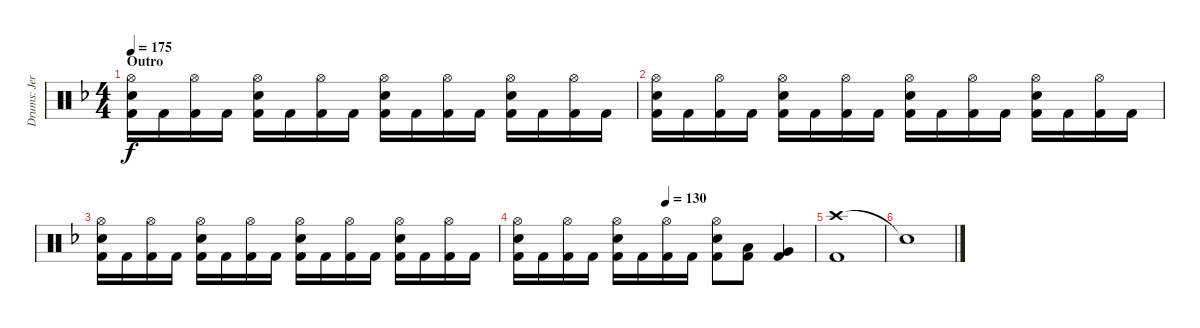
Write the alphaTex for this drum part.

\track ("Drums: Jere Luokkamäki" "Drums: Jer") {instrument percussion}
\staff {score}
\articulation defaults
\ts (4 4)
\section ("" "Outro")
\tempo 175
\clef neutral
\ks dminor
("Hi-Hat (open)" "Electric Snare (hit)" "Kick (hit) 2").16{dy f} "Kick (hit) 2".16 ("Hi-Hat (open)" "Kick (hit) 2").16 "Kick (hit) 2".16 ("Hi-Hat (open)" "Electric Snare (hit)" "Kick (hit) 2").16 "Kick (hit) 2".16 ("Hi-Hat (open)" "Kick (hit) 2").16 "Kick (hit) 2".16 ("Hi-Hat (open)" "Electric Snare (hit)" "Kick (hit) 2").16 "Kick (hit) 2".16 ("Hi-Hat (open)" "Kick (hit) 2").16 "Kick (hit) 2".16 ("Hi-Hat (open)" "Electric Snare (hit)" "Kick (hit) 2").16 "Kick (hit) 2".16 ("Hi-Hat (open)" "Kick (hit) 2").16 "Kick (hit) 2".16 |
("Hi-Hat (open)" "Electric Snare (hit)" "Kick (hit) 2").16 "Kick (hit) 2".16 ("Hi-Hat (open)" "Kick (hit) 2").16 "Kick (hit) 2".16 ("Hi-Hat (open)" "Electric Snare (hit)" "Kick (hit) 2").16 "Kick (hit) 2".16 ("Hi-Hat (open)" "Kick (hit) 2").16 "Kick (hit) 2".16 ("Hi-Hat (open)" "Electric Snare (hit)" "Kick (hit) 2").16 "Kick (hit) 2".16 ("Hi-Hat (open)" "Kick (hit) 2").16 "Kick (hit) 2".16 ("Hi-Hat (open)" "Electric Snare (hit)" "Kick (hit) 2").16 "Kick (hit) 2".16 ("Hi-Hat (open)" "Kick (hit) 2").16 "Kick (hit) 2".16 |
("Hi-Hat (open)" "Electric Snare (hit)" "Kick (hit) 2").16 "Kick (hit) 2".16 ("Hi-Hat (open)" "Kick (hit) 2").16 "Kick (hit) 2".16 ("Hi-Hat (open)" "Electric Snare (hit)" "Kick (hit) 2").16 "Kick (hit) 2".16 ("Hi-Hat (open)" "Kick (hit) 2").16 "Kick (hit) 2".16 ("Hi-Hat (open)" "Electric Snare (hit)" "Kick (hit) 2").16 "Kick (hit) 2".16 ("Hi-Hat (open)" "Kick (hit) 2").16 "Kick (hit) 2".16 ("Hi-Hat (open)" "Electric Snare (hit)" "Kick (hit) 2").16 "Kick (hit) 2".16 ("Hi-Hat (open)" "Kick (hit) 2").16 "Kick (hit) 2".16 |
\tempo (130 0.5)
("Hi-Hat (open)" "Electric Snare (hit)" "Kick (hit) 2").16 "Kick (hit) 2".16 ("Hi-Hat (open)" "Kick (hit) 2").16 "Kick (hit) 2".16 ("Hi-Hat (open)" "Electric Snare (hit)" "Kick (hit) 2").16 "Kick (hit) 2".16 ("Hi-Hat (open)" "Kick (hit) 2").16 "Kick (hit) 2".16 ("Hi-Hat (open)" "Electric Snare (hit)" "Kick (hit) 2").8 ("Low Tom (hit)" "Kick (hit) 2").8 ("Very Low Tom (hit)" "Kick (hit) 2").4 |
("Crash high (hit)" "Kick (hit) 2").1 |
"Snare (hit)"{t}.1
